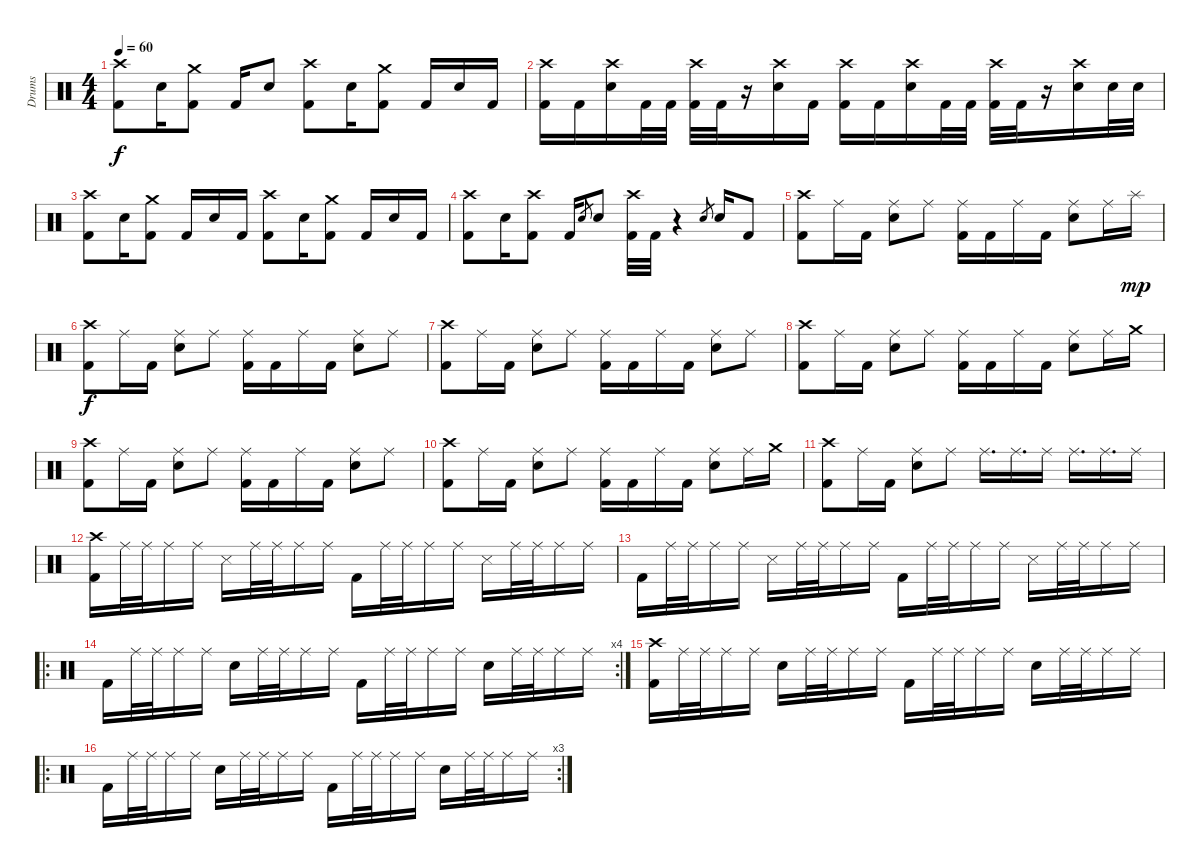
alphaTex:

\track ("Drums" "Drums") {instrument percussion}
\staff {score}
\articulation defaults
\ts (4 4)
\tempo 60
\clef neutral
\ks c
("Crash high (hit)" "Kick (hit) 2").8{dy f} "Electric Snare (hit)".16 ("Crash medium (hit)" "Kick (hit) 2").8 "Kick (hit) 2".16 "Electric Snare (hit)".8 ("Crash high (hit)" "Kick (hit) 2").8 "Electric Snare (hit)".16 ("Crash medium (hit)" "Kick (hit) 2").8 "Kick (hit) 2".16 "Electric Snare (hit)".16 "Kick (hit) 2".16 |
("Crash high (hit)" "Kick (hit) 2").16 "Kick (hit) 2".16 ("Crash high (hit)" "Electric Snare (hit)").16 "Kick (hit) 2".32 "Kick (hit) 2".32 ("Crash high (hit)" "Kick (hit) 2").32 "Kick (hit) 2".32 r.16 ("Crash high (hit)" "Electric Snare (hit)").16 "Kick (hit) 2".16 ("Crash high (hit)" "Kick (hit) 2").16 "Kick (hit) 2".16 ("Crash high (hit)" "Electric Snare (hit)").16 "Kick (hit) 2".32 "Kick (hit) 2".32 ("Crash high (hit)" "Kick (hit) 2").32 "Kick (hit) 2".32 r.16 ("Crash high (hit)" "Electric Snare (hit)").16 "Electric Snare (hit)".32 "Electric Snare (hit)".32 |
("Crash high (hit)" "Kick (hit) 2").8 "Electric Snare (hit)".16 ("Crash medium (hit)" "Kick (hit) 2").8 "Kick (hit) 2".16 "Electric Snare (hit)".16 "Kick (hit) 2".16 ("Crash high (hit)" "Kick (hit) 2").8 "Electric Snare (hit)".16 ("Crash medium (hit)" "Kick (hit) 2").8 "Kick (hit) 2".16 "Electric Snare (hit)".16 "Kick (hit) 2".16 |
("Crash high (hit)" "Kick (hit) 2").8 "Electric Snare (hit)".16 ("Crash high (hit)" "Kick (hit) 2").8 "Kick (hit) 2".16 "Electric Snare (hit)".8{gr} "Electric Snare (hit)".8 ("Crash high (hit)" "Kick (hit) 2").32 "Kick (hit) 2".32 r.4 "Electric Snare (hit)".8{gr} "Electric Snare (hit)".16 "Kick (hit) 2".8 |
("Crash high (hit)" "Kick (hit) 2").8 "Ride (middle)".16 "Kick (hit) 2".16 ("Ride (middle)" "Electric Snare (hit)").8 "Ride (middle)".8 ("Ride (middle)" "Kick (hit) 2").16 "Kick (hit) 2".16 "Ride (middle)".16 "Kick (hit) 2".16 ("Ride (middle)" "Electric Snare (hit)").8 "Ride (middle)".16 "Splash (hit)".16{dy mp} |
("Crash high (hit)" "Kick (hit) 2").8{dy f} "Ride (middle)".16 "Kick (hit) 2".16 ("Ride (middle)" "Electric Snare (hit)").8 "Ride (middle)".8 ("Ride (middle)" "Kick (hit) 2").16 "Kick (hit) 2".16 "Ride (middle)".16 "Kick (hit) 2".16 ("Ride (middle)" "Electric Snare (hit)").8 "Ride (middle)".8 |
("Crash high (hit)" "Kick (hit) 2").8 "Ride (middle)".16 "Kick (hit) 2".16 ("Ride (middle)" "Electric Snare (hit)").8 "Ride (middle)".8 ("Ride (middle)" "Kick (hit) 2").16 "Kick (hit) 2".16 "Ride (middle)".16 "Kick (hit) 2".16 ("Ride (middle)" "Electric Snare (hit)").8 "Ride (middle)".8 |
("Crash high (hit)" "Kick (hit) 2").8 "Ride (middle)".16 "Kick (hit) 2".16 ("Ride (middle)" "Electric Snare (hit)").8 "Ride (middle)".8 ("Ride (middle)" "Kick (hit) 2").16 "Kick (hit) 2".16 "Ride (middle)".16 "Kick (hit) 2".16 ("Ride (middle)" "Electric Snare (hit)").8 "Ride (middle)".16 "Crash medium (hit)".16 |
("Crash high (hit)" "Kick (hit) 2").8 "Ride (middle)".16 "Kick (hit) 2".16 ("Ride (middle)" "Electric Snare (hit)").8 "Ride (middle)".8 ("Ride (middle)" "Kick (hit) 2").16 "Kick (hit) 2".16 "Ride (middle)".16 "Kick (hit) 2".16 ("Ride (middle)" "Electric Snare (hit)").8 "Ride (middle)".8 |
("Crash high (hit)" "Kick (hit) 2").8 "Ride (middle)".16 "Kick (hit) 2".16 ("Ride (middle)" "Electric Snare (hit)").8 "Ride (middle)".8 ("Ride (middle)" "Kick (hit) 2").16 "Kick (hit) 2".16 "Ride (middle)".16 "Kick (hit) 2".16 ("Ride (middle)" "Electric Snare (hit)").8 "Ride (middle)".16 "Crash medium (hit)".16 |
("Crash high (hit)" "Kick (hit) 2").8 "Ride (middle)".16 "Kick (hit) 2".16 ("Ride (middle)" "Electric Snare (hit)").8 "Ride (middle)".8 "Ride (middle)".16{d} "Ride (middle)".16{d} "Ride (middle)".16 "Ride (middle)".16{d} "Ride (middle)".16{d} "Ride (middle)".16 |
("Crash high (hit)" "Kick (hit) 2").16 "Ride (middle)".32 "Ride (middle)".32 "Ride (middle)".16 "Ride (middle)".16 "Snare (side stick) 3".16 "Ride (middle)".32 "Ride (middle)".32 "Ride (middle)".16 "Ride (middle)".16 "Kick (hit) 2".16 "Ride (middle)".32 "Ride (middle)".32 "Ride (middle)".16 "Ride (middle)".16 "Snare (side stick) 3".16 "Ride (middle)".32 "Ride (middle)".32 "Ride (middle)".16 "Ride (middle)".16 |
"Kick (hit) 2".16 "Ride (middle)".32 "Ride (middle)".32 "Ride (middle)".16 "Ride (middle)".16 "Snare (side stick) 3".16 "Ride (middle)".32 "Ride (middle)".32 "Ride (middle)".16 "Ride (middle)".16 "Kick (hit) 2".16 "Ride (middle)".32 "Ride (middle)".32 "Ride (middle)".16 "Ride (middle)".16 "Snare (side stick) 3".16 "Ride (middle)".32 "Ride (middle)".32 "Ride (middle)".16 "Ride (middle)".16 |
\ro
\rc 4 "Kick (hit) 2".16 "Ride (middle)".32 "Ride (middle)".32 "Ride (middle)".16 "Ride (middle)".16 "Electric Snare (hit)".16 "Ride (middle)".32 "Ride (middle)".32 "Ride (middle)".16 "Ride (middle)".16 "Kick (hit) 2".16 "Ride (middle)".32 "Ride (middle)".32 "Ride (middle)".16 "Ride (middle)".16 "Electric Snare (hit)".16 "Ride (middle)".32 "Ride (middle)".32 "Ride (middle)".16 "Ride (middle)".16
|
("Crash high (hit)" "Kick (hit) 2").16 "Ride (middle)".32 "Ride (middle)".32 "Ride (middle)".16 "Ride (middle)".16 "Electric Snare (hit)".16 "Ride (middle)".32 "Ride (middle)".32 "Ride (middle)".16 "Ride (middle)".16 "Kick (hit) 2".16 "Ride (middle)".32 "Ride (middle)".32 "Ride (middle)".16 "Ride (middle)".16 "Electric Snare (hit)".16 "Ride (middle)".32 "Ride (middle)".32 "Ride (middle)".16 "Ride (middle)".16 |
\ro
\rc 3 "Kick (hit) 2".16 "Ride (middle)".32 "Ride (middle)".32 "Ride (middle)".16 "Ride (middle)".16 "Electric Snare (hit)".16 "Ride (middle)".32 "Ride (middle)".32 "Ride (middle)".16 "Ride (middle)".16 "Kick (hit) 2".16 "Ride (middle)".32 "Ride (middle)".32 "Ride (middle)".16 "Ride (middle)".16 "Electric Snare (hit)".16 "Ride (middle)".32 "Ride (middle)".32 "Ride (middle)".16 "Ride (middle)".16
